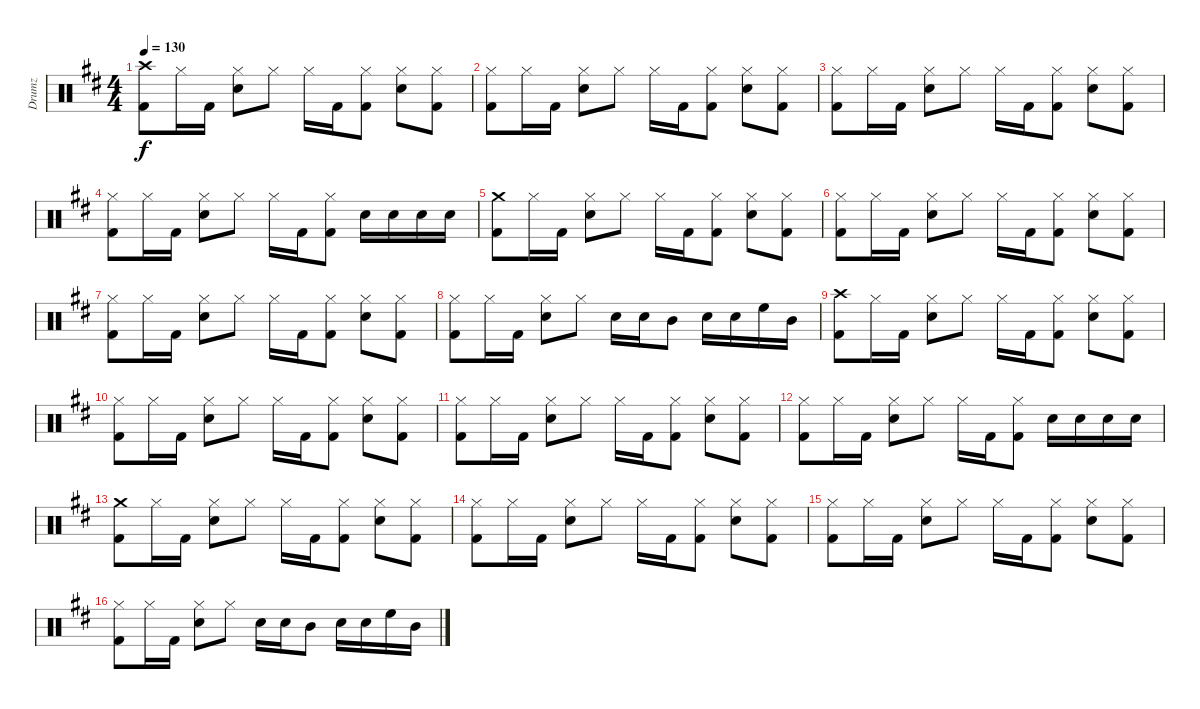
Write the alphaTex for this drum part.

\track ("Drumz" "Drumz") {instrument percussion}
\staff {score}
\articulation defaults
\ts (4 4)
\tempo 130
\clef neutral
\ks d
("Crash high (hit)" "Kick (hit) 2").8{dy f} "Hi-Hat (closed)".16 "Kick (hit) 2".16 ("Hi-Hat (closed)" "Snare (hit) 2").8 "Hi-Hat (closed)".8 "Hi-Hat (closed)".16 "Kick (hit) 2".16 ("Hi-Hat (closed)" "Kick (hit) 2").8 ("Hi-Hat (closed)" "Snare (hit) 2").8 ("Hi-Hat (closed)" "Kick (hit) 2").8 |
("Hi-Hat (closed)" "Kick (hit) 2").8 "Hi-Hat (closed)".16 "Kick (hit) 2".16 ("Hi-Hat (closed)" "Snare (hit) 2").8 "Hi-Hat (closed)".8 "Hi-Hat (closed)".16 "Kick (hit) 2".16 ("Hi-Hat (closed)" "Kick (hit) 2").8 ("Hi-Hat (closed)" "Snare (hit) 2").8 ("Hi-Hat (closed)" "Kick (hit) 2").8 |
("Hi-Hat (closed)" "Kick (hit) 2").8 "Hi-Hat (closed)".16 "Kick (hit) 2".16 ("Hi-Hat (closed)" "Snare (hit) 2").8 "Hi-Hat (closed)".8 "Hi-Hat (closed)".16 "Kick (hit) 2".16 ("Hi-Hat (closed)" "Kick (hit) 2").8 ("Hi-Hat (closed)" "Snare (hit) 2").8 ("Hi-Hat (closed)" "Kick (hit) 2").8 |
("Hi-Hat (closed)" "Kick (hit) 2").8 "Hi-Hat (closed)".16 "Kick (hit) 2".16 ("Hi-Hat (closed)" "Snare (hit) 2").8 "Hi-Hat (closed)".8 "Hi-Hat (closed)".16 "Kick (hit) 2".16 ("Hi-Hat (closed)" "Kick (hit) 2").8 "Snare (hit) 2".16 "Snare (hit) 2".16 "Snare (hit) 2".16 "Snare (hit) 2".16 |
("Crash medium (hit)" "Kick (hit) 2").8 "Hi-Hat (closed)".16 "Kick (hit) 2".16 ("Hi-Hat (closed)" "Snare (hit) 2").8 "Hi-Hat (closed)".8 "Hi-Hat (closed)".16 "Kick (hit) 2".16 ("Hi-Hat (closed)" "Kick (hit) 2").8 ("Hi-Hat (closed)" "Snare (hit) 2").8 ("Hi-Hat (closed)" "Kick (hit) 2").8 |
("Hi-Hat (closed)" "Kick (hit) 2").8 "Hi-Hat (closed)".16 "Kick (hit) 2".16 ("Hi-Hat (closed)" "Snare (hit) 2").8 "Hi-Hat (closed)".8 "Hi-Hat (closed)".16 "Kick (hit) 2".16 ("Hi-Hat (closed)" "Kick (hit) 2").8 ("Hi-Hat (closed)" "Snare (hit) 2").8 ("Hi-Hat (closed)" "Kick (hit) 2").8 |
("Hi-Hat (closed)" "Kick (hit) 2").8 "Hi-Hat (closed)".16 "Kick (hit) 2".16 ("Hi-Hat (closed)" "Snare (hit) 2").8 "Hi-Hat (closed)".8 "Hi-Hat (closed)".16 "Kick (hit) 2".16 ("Hi-Hat (closed)" "Kick (hit) 2").8 ("Hi-Hat (closed)" "Snare (hit) 2").8 ("Hi-Hat (closed)" "Kick (hit) 2").8 |
("Hi-Hat (closed)" "Kick (hit) 2").8 "Hi-Hat (closed)".16 "Kick (hit) 2".16 ("Hi-Hat (closed)" "Snare (hit) 2").8 "Hi-Hat (closed)".8 "Snare (hit) 2".16 "Snare (hit) 2".16 "Mid Tom (hit)".8 "Snare (hit) 2".16 "Snare (hit) 2".16 "High Floor Tom (hit)".16 "Mid Tom (hit)".16 |
("Crash high (hit)" "Kick (hit) 2").8 "Hi-Hat (closed)".16 "Kick (hit) 2".16 ("Hi-Hat (closed)" "Snare (hit) 2").8 "Hi-Hat (closed)".8 "Hi-Hat (closed)".16 "Kick (hit) 2".16 ("Hi-Hat (closed)" "Kick (hit) 2").8 ("Hi-Hat (closed)" "Snare (hit) 2").8 ("Hi-Hat (closed)" "Kick (hit) 2").8 |
("Hi-Hat (closed)" "Kick (hit) 2").8 "Hi-Hat (closed)".16 "Kick (hit) 2".16 ("Hi-Hat (closed)" "Snare (hit) 2").8 "Hi-Hat (closed)".8 "Hi-Hat (closed)".16 "Kick (hit) 2".16 ("Hi-Hat (closed)" "Kick (hit) 2").8 ("Hi-Hat (closed)" "Snare (hit) 2").8 ("Hi-Hat (closed)" "Kick (hit) 2").8 |
("Hi-Hat (closed)" "Kick (hit) 2").8 "Hi-Hat (closed)".16 "Kick (hit) 2".16 ("Hi-Hat (closed)" "Snare (hit) 2").8 "Hi-Hat (closed)".8 "Hi-Hat (closed)".16 "Kick (hit) 2".16 ("Hi-Hat (closed)" "Kick (hit) 2").8 ("Hi-Hat (closed)" "Snare (hit) 2").8 ("Hi-Hat (closed)" "Kick (hit) 2").8 |
("Hi-Hat (closed)" "Kick (hit) 2").8 "Hi-Hat (closed)".16 "Kick (hit) 2".16 ("Hi-Hat (closed)" "Snare (hit) 2").8 "Hi-Hat (closed)".8 "Hi-Hat (closed)".16 "Kick (hit) 2".16 ("Hi-Hat (closed)" "Kick (hit) 2").8 "Snare (hit) 2".16 "Snare (hit) 2".16 "Snare (hit) 2".16 "Snare (hit) 2".16 |
("Crash medium (hit)" "Kick (hit) 2").8 "Hi-Hat (closed)".16 "Kick (hit) 2".16 ("Hi-Hat (closed)" "Snare (hit) 2").8 "Hi-Hat (closed)".8 "Hi-Hat (closed)".16 "Kick (hit) 2".16 ("Hi-Hat (closed)" "Kick (hit) 2").8 ("Hi-Hat (closed)" "Snare (hit) 2").8 ("Hi-Hat (closed)" "Kick (hit) 2").8 |
("Hi-Hat (closed)" "Kick (hit) 2").8 "Hi-Hat (closed)".16 "Kick (hit) 2".16 ("Hi-Hat (closed)" "Snare (hit) 2").8 "Hi-Hat (closed)".8 "Hi-Hat (closed)".16 "Kick (hit) 2".16 ("Hi-Hat (closed)" "Kick (hit) 2").8 ("Hi-Hat (closed)" "Snare (hit) 2").8 ("Hi-Hat (closed)" "Kick (hit) 2").8 |
("Hi-Hat (closed)" "Kick (hit) 2").8 "Hi-Hat (closed)".16 "Kick (hit) 2".16 ("Hi-Hat (closed)" "Snare (hit) 2").8 "Hi-Hat (closed)".8 "Hi-Hat (closed)".16 "Kick (hit) 2".16 ("Hi-Hat (closed)" "Kick (hit) 2").8 ("Hi-Hat (closed)" "Snare (hit) 2").8 ("Hi-Hat (closed)" "Kick (hit) 2").8 |
("Hi-Hat (closed)" "Kick (hit) 2").8 "Hi-Hat (closed)".16 "Kick (hit) 2".16 ("Hi-Hat (closed)" "Snare (hit) 2").8 "Hi-Hat (closed)".8 "Snare (hit) 2".16 "Snare (hit) 2".16 "Mid Tom (hit)".8 "Snare (hit) 2".16 "Snare (hit) 2".16 "High Floor Tom (hit)".16 "Mid Tom (hit)".16
